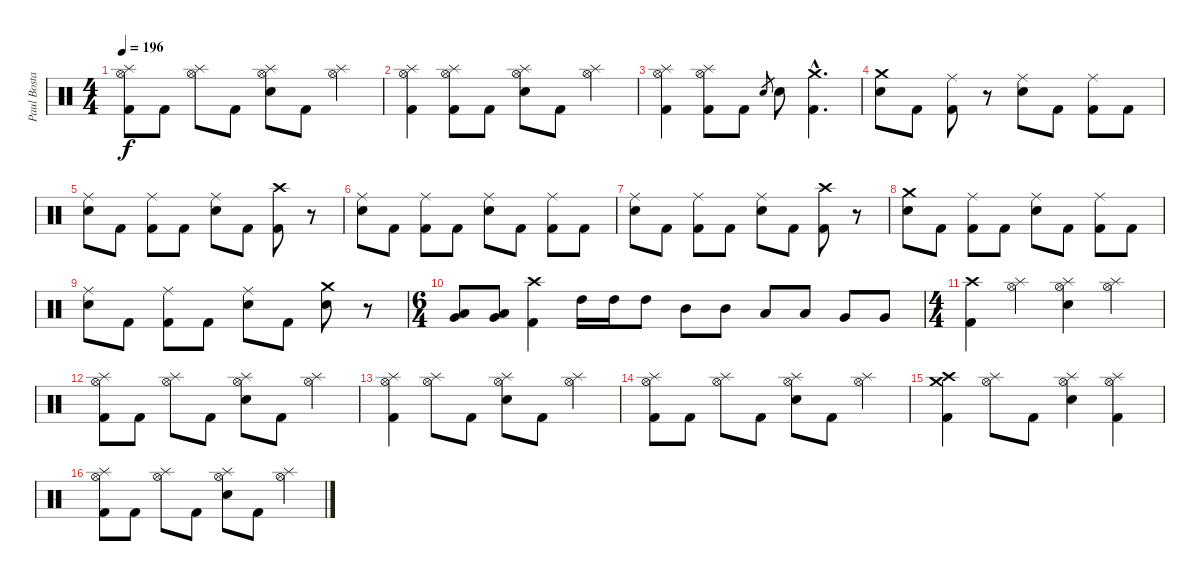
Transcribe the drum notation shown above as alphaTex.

\track ("Paul Bostaph" "Paul Bosta") {instrument percussion}
\staff {score}
\articulation defaults
\ts (4 4)
\tempo 196
\clef neutral
\ks c
("Splash (hit)" "Kick (hit) 2" "Hi-Hat (open)").8{dy f} "Kick (hit) 2".8 ("Splash (hit)" "Hi-Hat (open)").8 "Kick (hit) 2".8 ("Splash (hit)" "Electric Snare (hit)" "Hi-Hat (open)").8 "Kick (hit) 2".8 ("Splash (hit)" "Hi-Hat (open)").4 |
("Splash (hit)" "Kick (hit) 2" "Hi-Hat (open)").4 ("Splash (hit)" "Kick (hit) 2" "Hi-Hat (open)").8 "Kick (hit) 2".8 ("Splash (hit)" "Electric Snare (hit)" "Hi-Hat (open)").8 "Kick (hit) 2".8 ("Splash (hit)" "Hi-Hat (open)").4 |
("Splash (hit)" "Kick (hit) 2" "Hi-Hat (open)").4 ("Splash (hit)" "Kick (hit) 2" "Hi-Hat (open)").8 "Kick (hit) 2".8 "Electric Snare (hit)".8{gr} "Electric Snare (hit)".8 ("Crash medium (hit)"{hac} "Kick (hit) 2"{hac}).4{d} |
("Electric Snare (hit)" "Crash medium (hit)").8 "Kick (hit) 2".8 ("Kick (hit) 2" "Ride (middle)").8 r.8 ("Electric Snare (hit)" "Ride (middle)").8 "Kick (hit) 2".8 ("Kick (hit) 2" "Ride (middle)").8 "Kick (hit) 2".8 |
("Electric Snare (hit)" "Ride (middle)").8 "Kick (hit) 2".8 ("Kick (hit) 2" "Ride (middle)").8 "Kick (hit) 2".8 ("Electric Snare (hit)" "Ride (middle)").8 "Kick (hit) 2".8 ("Kick (hit) 2" "Crash high (hit)").8 r.8 |
("Electric Snare (hit)" "Ride (middle)").8 "Kick (hit) 2".8 ("Kick (hit) 2" "Ride (middle)").8 "Kick (hit) 2".8 ("Electric Snare (hit)" "Ride (middle)").8 "Kick (hit) 2".8 ("Kick (hit) 2" "Ride (middle)").8 "Kick (hit) 2".8 |
("Electric Snare (hit)" "Ride (middle)").8 "Kick (hit) 2".8 ("Kick (hit) 2" "Ride (middle)").8 "Kick (hit) 2".8 ("Electric Snare (hit)" "Ride (middle)").8 "Kick (hit) 2".8 ("Kick (hit) 2" "Crash high (hit)").8 r.8 |
("Electric Snare (hit)" "Crash medium (hit)").8 "Kick (hit) 2".8 ("Kick (hit) 2" "Ride (middle)").8 "Kick (hit) 2".8 ("Electric Snare (hit)" "Ride (middle)").8 "Kick (hit) 2".8 ("Kick (hit) 2" "Ride (middle)").8 "Kick (hit) 2".8 |
("Electric Snare (hit)" "Ride (middle)").8 "Kick (hit) 2".8 ("Kick (hit) 2" "Ride (middle)").8 "Kick (hit) 2".8 ("Electric Snare (hit)" "Ride (middle)").8 "Kick (hit) 2".8 ("Electric Snare (hit)" "Crash medium (hit)").8 r.8 |
\ts (6 4)
("Low Tom (hit)" "Very Low Tom (hit)").8 ("Low Tom (hit)" "Very Low Tom (hit)").8 ("Kick (hit) 2" "Crash high (hit)").4 "High Tom (hit)".16 "High Tom (hit)".16 "High Tom (hit)".8 "Mid Tom (hit)".8 "Mid Tom (hit)".8 "Low Tom (hit)".8 "Low Tom (hit)".8 "Very Low Tom (hit)".8 "Very Low Tom (hit)".8 |
\ts (4 4)
("Crash high (hit)" "Kick (hit) 2").4 ("Splash (hit)" "Hi-Hat (open)").4 ("Splash (hit)" "Electric Snare (hit)" "Hi-Hat (open)").4 ("Splash (hit)" "Hi-Hat (open)").4 |
("Splash (hit)" "Kick (hit) 2" "Hi-Hat (open)").8 "Kick (hit) 2".8 ("Splash (hit)" "Hi-Hat (open)").8 "Kick (hit) 2".8 ("Splash (hit)" "Electric Snare (hit)" "Hi-Hat (open)").8 "Kick (hit) 2".8 ("Splash (hit)" "Hi-Hat (open)").4 |
("Splash (hit)" "Kick (hit) 2" "Hi-Hat (open)").4 ("Splash (hit)" "Hi-Hat (open)").8 "Kick (hit) 2".8 ("Splash (hit)" "Electric Snare (hit)" "Hi-Hat (open)").8 "Kick (hit) 2".8 ("Splash (hit)" "Hi-Hat (open)").4 |
("Splash (hit)" "Kick (hit) 2" "Hi-Hat (open)").8 "Kick (hit) 2".8 ("Splash (hit)" "Hi-Hat (open)").8 "Kick (hit) 2".8 ("Splash (hit)" "Electric Snare (hit)" "Hi-Hat (open)").8 "Kick (hit) 2".8 ("Splash (hit)" "Hi-Hat (open)").4 |
("Crash high (hit)" "Kick (hit) 2" "Crash medium (hit)").4 ("Splash (hit)" "Hi-Hat (open)").8 "Kick (hit) 2".8 ("Splash (hit)" "Electric Snare (hit)" "Hi-Hat (open)").4 ("Splash (hit)" "Kick (hit) 2" "Hi-Hat (open)").4 |
("Splash (hit)" "Kick (hit) 2" "Hi-Hat (open)").8 "Kick (hit) 2".8 ("Splash (hit)" "Hi-Hat (open)").8 "Kick (hit) 2".8 ("Splash (hit)" "Electric Snare (hit)" "Hi-Hat (open)").8 "Kick (hit) 2".8 ("Splash (hit)" "Hi-Hat (open)").4
